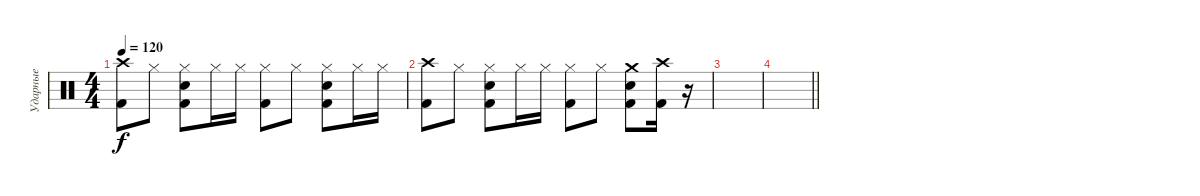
\track ("Ударные" "Ударные") {instrument percussion}
\staff {score}
\articulation defaults
\ts (4 4)
\tempo 120
\clef neutral
\ks c
("Crash high (hit)" "Kick (hit) 2").8{dy f} "Hi-Hat (closed)".8 ("Hi-Hat (closed)" "Kick (hit) 2" "Electric Snare (hit)").8 "Hi-Hat (closed)".16 "Hi-Hat (closed)".16 ("Hi-Hat (closed)" "Kick (hit) 2").8 "Hi-Hat (closed)".8 ("Hi-Hat (closed)" "Kick (hit) 2" "Electric Snare (hit)").8 "Hi-Hat (closed)".16 "Hi-Hat (closed)".16 |
("Crash high (hit)" "Kick (hit) 2").8 "Hi-Hat (closed)".8 ("Hi-Hat (closed)" "Kick (hit) 2" "Electric Snare (hit)").8 "Hi-Hat (closed)".16 "Hi-Hat (closed)".16 ("Hi-Hat (closed)" "Kick (hit) 2").8 "Hi-Hat (closed)".8 ("Crash medium (hit)" "Kick (hit) 2" "Electric Snare (hit)").8 ("Crash high (hit)" "Kick (hit) 2").16 r.16 |
|
\barLineRight lightlight
